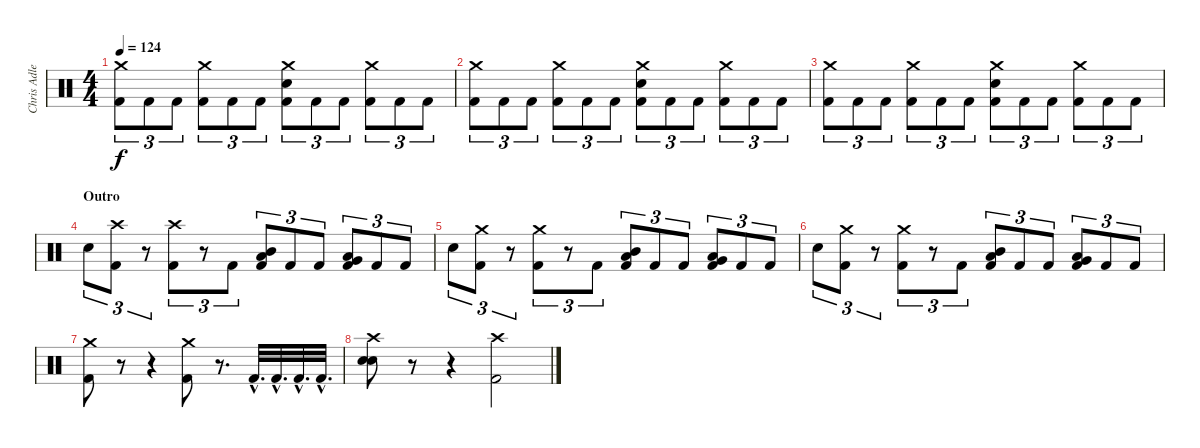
\track ("Chris Adler" "Chris Adle") {instrument percussion}
\staff {score}
\articulation defaults
\ts (4 4)
\tempo 124
\clef neutral
\ks c
("Crash medium (hit)" "Kick (hit) 2").8{tu (3 2) dy f} "Kick (hit) 2".8{tu (3 2)} "Kick (hit) 2".8{tu (3 2)} ("Crash medium (hit)" "Kick (hit) 2").8{tu (3 2)} "Kick (hit) 2".8{tu (3 2)} "Kick (hit) 2".8{tu (3 2)} ("Crash medium (hit)" "Snare (hit) 2" "Kick (hit) 2").8{tu (3 2)} "Kick (hit) 2".8{tu (3 2)} "Kick (hit) 2".8{tu (3 2)} ("Crash medium (hit)" "Kick (hit) 2").8{tu (3 2)} "Kick (hit) 2".8{tu (3 2)} "Kick (hit) 2".8{tu (3 2)} |
("Crash medium (hit)" "Kick (hit) 2").8{tu (3 2)} "Kick (hit) 2".8{tu (3 2)} "Kick (hit) 2".8{tu (3 2)} ("Crash medium (hit)" "Kick (hit) 2").8{tu (3 2)} "Kick (hit) 2".8{tu (3 2)} "Kick (hit) 2".8{tu (3 2)} ("Crash medium (hit)" "Snare (hit) 2" "Kick (hit) 2").8{tu (3 2)} "Kick (hit) 2".8{tu (3 2)} "Kick (hit) 2".8{tu (3 2)} ("Crash medium (hit)" "Kick (hit) 2").8{tu (3 2)} "Kick (hit) 2".8{tu (3 2)} "Kick (hit) 2".8{tu (3 2)} |
("Crash medium (hit)" "Kick (hit) 2").8{tu (3 2)} "Kick (hit) 2".8{tu (3 2)} "Kick (hit) 2".8{tu (3 2)} ("Crash medium (hit)" "Kick (hit) 2").8{tu (3 2)} "Kick (hit) 2".8{tu (3 2)} "Kick (hit) 2".8{tu (3 2)} ("Crash medium (hit)" "Snare (hit) 2" "Kick (hit) 2").8{tu (3 2)} "Kick (hit) 2".8{tu (3 2)} "Kick (hit) 2".8{tu (3 2)} ("Crash medium (hit)" "Kick (hit) 2").8{tu (3 2)} "Kick (hit) 2".8{tu (3 2)} "Kick (hit) 2".8{tu (3 2)} |
\section ("" "Outro")
"Snare (hit) 2".8{tu (3 2)} ("Crash high (hit)" "Kick (hit) 2").8{tu (3 2)} r.8{tu (3 2)} ("Crash high (hit)" "Kick (hit) 2").8{tu (3 2)} r.8{tu (3 2)} "Kick (hit) 2".8{tu (3 2)} ("Mid Tom (hit)" "Low Tom (hit)" "Kick (hit) 2").8{tu (3 2)} "Kick (hit) 2".8{tu (3 2)} "Kick (hit) 2".8{tu (3 2)} ("Low Tom (hit)" "Very Low Tom (hit)" "Kick (hit) 2").8{tu (3 2)} "Kick (hit) 2".8{tu (3 2)} "Kick (hit) 2".8{tu (3 2)} |
"Snare (hit) 2".8{tu (3 2)} ("Crash medium (hit)" "Kick (hit) 2").8{tu (3 2)} r.8{tu (3 2)} ("Crash medium (hit)" "Kick (hit) 2").8{tu (3 2)} r.8{tu (3 2)} "Kick (hit) 2".8{tu (3 2)} ("Mid Tom (hit)" "Low Tom (hit)" "Kick (hit) 2").8{tu (3 2)} "Kick (hit) 2".8{tu (3 2)} "Kick (hit) 2".8{tu (3 2)} ("Low Tom (hit)" "Very Low Tom (hit)" "Kick (hit) 2").8{tu (3 2)} "Kick (hit) 2".8{tu (3 2)} "Kick (hit) 2".8{tu (3 2)} |
"Snare (hit) 2".8{tu (3 2)} ("Crash medium (hit)" "Kick (hit) 2").8{tu (3 2)} r.8{tu (3 2)} ("Crash medium (hit)" "Kick (hit) 2").8{tu (3 2)} r.8{tu (3 2)} "Kick (hit) 2".8{tu (3 2)} ("Mid Tom (hit)" "Low Tom (hit)" "Kick (hit) 2").8{tu (3 2)} "Kick (hit) 2".8{tu (3 2)} "Kick (hit) 2".8{tu (3 2)} ("Low Tom (hit)" "Very Low Tom (hit)" "Kick (hit) 2").8{tu (3 2)} "Kick (hit) 2".8{tu (3 2)} "Kick (hit) 2".8{tu (3 2)} |
("Crash medium (hit)" "Kick (hit) 2").8 r.8 r.4 ("Crash medium (hit)" "Kick (hit) 2").8 r.8{d} "Kick (hit) 2"{hac}.32{d} "Kick (hit) 2"{hac}.32{d} "Kick (hit) 2"{hac}.32{d} "Kick (hit) 2"{hac}.32{d} |
("Crash high (hit)" "Snare (hit) 2" "Snare (hit) 2").8 r.8 r.4 ("Crash high (hit)" "Kick (hit) 2").2
